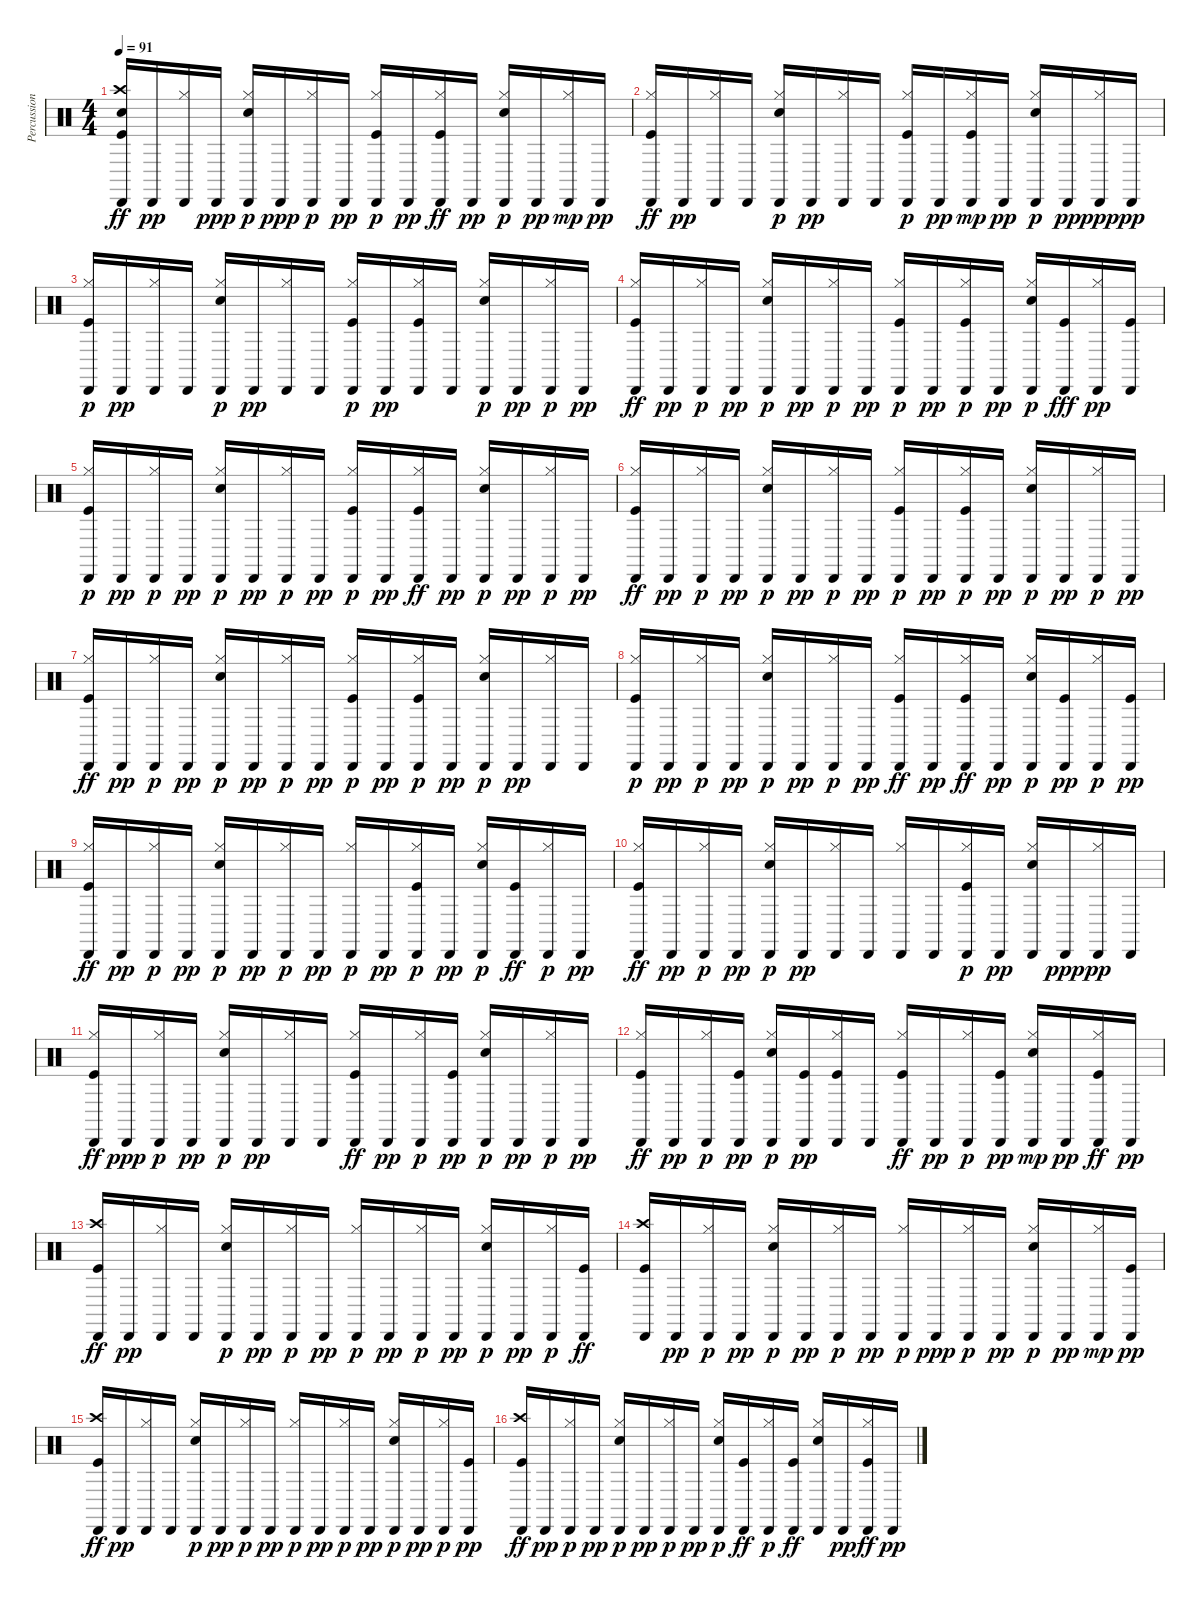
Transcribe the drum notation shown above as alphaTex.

\track ("Percussion" "Percussion") {instrument percussion}
\staff {score}
\articulation defaults
\ts (4 4)
\tempo 91
\clef neutral
\ks c
("Snare (hit) 2" "Cabasa (hit)" "Crash high (hit)" "Kick (hit)").16{dy ff} "Cabasa (hit)".16{dy pp} ("Hi-Hat (closed)" "Cabasa (hit)").16 "Cabasa (hit)".16{dy ppp} ("Hi-Hat (closed)" "Cabasa (hit)" "Snare (hit) 2").16{dy p} "Cabasa (hit)".16{dy ppp} ("Cabasa (hit)" "Hi-Hat (closed)").16{dy p} "Cabasa (hit)".16{dy pp} ("Cabasa (hit)" "Hi-Hat (closed)" "Kick (hit)").16{dy p} "Cabasa (hit)".16{dy pp} ("Cabasa (hit)" "Hi-Hat (closed)" "Kick (hit)").16{dy ff} "Cabasa (hit)".16{dy pp} ("Cabasa (hit)" "Hi-Hat (closed)" "Snare (hit) 2").16{dy p} "Cabasa (hit)".16{dy pp} ("Cabasa (hit)" "Hi-Hat (closed)").16{dy mp} "Cabasa (hit)".16{dy pp} |
("Cabasa (hit)" "Hi-Hat (closed)" "Kick (hit)").16{dy ff} "Cabasa (hit)".16{dy pp} ("Hi-Hat (closed)" "Cabasa (hit)").16 "Cabasa (hit)".16 ("Cabasa (hit)" "Hi-Hat (closed)" "Snare (hit) 2").16{dy p} "Cabasa (hit)".16{dy pp} ("Hi-Hat (closed)" "Cabasa (hit)").16 "Cabasa (hit)".16 ("Hi-Hat (closed)" "Kick (hit)" "Cabasa (hit)").16{dy p} "Cabasa (hit)".16{dy pp} ("Cabasa (hit)" "Kick (hit)" "Hi-Hat (closed)").16{dy mp} "Cabasa (hit)".16{dy pp} ("Cabasa (hit)" "Hi-Hat (closed)" "Snare (hit) 2").16{dy p} "Cabasa (hit)".16{dy pp} ("Hi-Hat (closed)" "Cabasa (hit)").16{dy ppp} "Cabasa (hit)".16{dy pp} |
("Cabasa (hit)" "Hi-Hat (closed)" "Kick (hit)").16{dy p} "Cabasa (hit)".16{dy pp} ("Hi-Hat (closed)" "Cabasa (hit)").16 "Cabasa (hit)".16 ("Hi-Hat (closed)" "Snare (hit) 2" "Cabasa (hit)").16{dy p} "Cabasa (hit)".16{dy pp} ("Hi-Hat (closed)" "Cabasa (hit)").16 "Cabasa (hit)".16 ("Hi-Hat (closed)" "Kick (hit)" "Cabasa (hit)").16{dy p} "Cabasa (hit)".16{dy pp} ("Hi-Hat (closed)" "Cabasa (hit)" "Kick (hit)").16 "Cabasa (hit)".16 ("Hi-Hat (closed)" "Cabasa (hit)" "Snare (hit) 2").16{dy p} "Cabasa (hit)".16{dy pp} ("Cabasa (hit)" "Hi-Hat (closed)").16{dy p} "Cabasa (hit)".16{dy pp} |
("Cabasa (hit)" "Hi-Hat (closed)" "Kick (hit)").16{dy ff} "Cabasa (hit)".16{dy pp} ("Cabasa (hit)" "Hi-Hat (closed)").16{dy p} "Cabasa (hit)".16{dy pp} ("Cabasa (hit)" "Hi-Hat (closed)" "Snare (hit) 2").16{dy p} "Cabasa (hit)".16{dy pp} ("Cabasa (hit)" "Hi-Hat (closed)").16{dy p} "Cabasa (hit)".16{dy pp} ("Kick (hit)" "Cabasa (hit)" "Hi-Hat (closed)").16{dy p} "Cabasa (hit)".16{dy pp} ("Cabasa (hit)" "Kick (hit)" "Hi-Hat (closed)").16{dy p} "Cabasa (hit)".16{dy pp} ("Cabasa (hit)" "Hi-Hat (closed)" "Snare (hit) 2").16{dy p} ("Cabasa (hit)" "Kick (hit)").16{dy fff} ("Hi-Hat (closed)" "Cabasa (hit)").16{dy pp} ("Cabasa (hit)" "Kick (hit)").16 |
("Hi-Hat (closed)" "Kick (hit)" "Cabasa (hit)").16{dy p} "Cabasa (hit)".16{dy pp} ("Cabasa (hit)" "Hi-Hat (closed)").16{dy p} "Cabasa (hit)".16{dy pp} ("Cabasa (hit)" "Hi-Hat (closed)" "Snare (hit) 2").16{dy p} "Cabasa (hit)".16{dy pp} ("Cabasa (hit)" "Hi-Hat (closed)").16{dy p} "Cabasa (hit)".16{dy pp} ("Cabasa (hit)" "Kick (hit)" "Hi-Hat (closed)").16{dy p} "Cabasa (hit)".16{dy pp} ("Cabasa (hit)" "Hi-Hat (closed)" "Kick (hit)").16{dy ff} "Cabasa (hit)".16{dy pp} ("Cabasa (hit)" "Hi-Hat (closed)" "Snare (hit) 2").16{dy p} "Cabasa (hit)".16{dy pp} ("Cabasa (hit)" "Hi-Hat (closed)").16{dy p} "Cabasa (hit)".16{dy pp} |
("Cabasa (hit)" "Hi-Hat (closed)" "Kick (hit)").16{dy ff} "Cabasa (hit)".16{dy pp} ("Cabasa (hit)" "Hi-Hat (closed)").16{dy p} "Cabasa (hit)".16{dy pp} ("Cabasa (hit)" "Hi-Hat (closed)" "Snare (hit) 2").16{dy p} "Cabasa (hit)".16{dy pp} ("Cabasa (hit)" "Hi-Hat (closed)").16{dy p} "Cabasa (hit)".16{dy pp} ("Cabasa (hit)" "Kick (hit)" "Hi-Hat (closed)").16{dy p} "Cabasa (hit)".16{dy pp} ("Cabasa (hit)" "Kick (hit)" "Hi-Hat (closed)").16{dy p} "Cabasa (hit)".16{dy pp} ("Cabasa (hit)" "Hi-Hat (closed)" "Snare (hit) 2").16{dy p} "Cabasa (hit)".16{dy pp} ("Cabasa (hit)" "Hi-Hat (closed)").16{dy p} "Cabasa (hit)".16{dy pp} |
("Cabasa (hit)" "Hi-Hat (closed)" "Kick (hit)").16{dy ff} "Cabasa (hit)".16{dy pp} ("Cabasa (hit)" "Hi-Hat (closed)").16{dy p} "Cabasa (hit)".16{dy pp} ("Cabasa (hit)" "Hi-Hat (closed)" "Snare (hit) 2").16{dy p} "Cabasa (hit)".16{dy pp} ("Cabasa (hit)" "Hi-Hat (closed)").16{dy p} "Cabasa (hit)".16{dy pp} ("Kick (hit)" "Cabasa (hit)" "Hi-Hat (closed)").16{dy p} "Cabasa (hit)".16{dy pp} ("Cabasa (hit)" "Hi-Hat (closed)" "Kick (hit)").16{dy p} "Cabasa (hit)".16{dy pp} ("Cabasa (hit)" "Hi-Hat (closed)" "Snare (hit) 2").16{dy p} "Cabasa (hit)".16{dy pp} ("Hi-Hat (closed)" "Cabasa (hit)").16 "Cabasa (hit)".16 |
("Hi-Hat (closed)" "Kick (hit)" "Cabasa (hit)").16{dy p} "Cabasa (hit)".16{dy pp} ("Cabasa (hit)" "Hi-Hat (closed)").16{dy p} "Cabasa (hit)".16{dy pp} ("Cabasa (hit)" "Hi-Hat (closed)" "Snare (hit) 2").16{dy p} "Cabasa (hit)".16{dy pp} ("Cabasa (hit)" "Hi-Hat (closed)").16{dy p} "Cabasa (hit)".16{dy pp} ("Cabasa (hit)" "Hi-Hat (closed)" "Kick (hit)").16{dy ff} "Cabasa (hit)".16{dy pp} ("Cabasa (hit)" "Hi-Hat (closed)" "Kick (hit)").16{dy ff} "Cabasa (hit)".16{dy pp} ("Cabasa (hit)" "Hi-Hat (closed)" "Snare (hit) 2").16{dy p} ("Kick (hit)" "Cabasa (hit)").16{dy pp} ("Cabasa (hit)" "Hi-Hat (closed)").16{dy p} ("Cabasa (hit)" "Kick (hit)").16{dy pp} |
("Cabasa (hit)" "Hi-Hat (closed)" "Kick (hit)").16{dy ff} "Cabasa (hit)".16{dy pp} ("Cabasa (hit)" "Hi-Hat (closed)").16{dy p} "Cabasa (hit)".16{dy pp} ("Cabasa (hit)" "Hi-Hat (closed)" "Snare (hit) 2").16{dy p} "Cabasa (hit)".16{dy pp} ("Cabasa (hit)" "Hi-Hat (closed)").16{dy p} "Cabasa (hit)".16{dy pp} ("Cabasa (hit)" "Hi-Hat (closed)").16{dy p} "Cabasa (hit)".16{dy pp} ("Cabasa (hit)" "Hi-Hat (closed)" "Kick (hit)").16{dy p} "Cabasa (hit)".16{dy pp} ("Cabasa (hit)" "Snare (hit) 2" "Hi-Hat (closed)").16{dy p} ("Cabasa (hit)" "Kick (hit)").16{dy ff} ("Cabasa (hit)" "Hi-Hat (closed)").16{dy p} "Cabasa (hit)".16{dy pp} |
("Cabasa (hit)" "Hi-Hat (closed)" "Kick (hit)").16{dy ff} "Cabasa (hit)".16{dy pp} ("Cabasa (hit)" "Hi-Hat (closed)").16{dy p} "Cabasa (hit)".16{dy pp} ("Cabasa (hit)" "Hi-Hat (closed)" "Snare (hit) 2").16{dy p} "Cabasa (hit)".16{dy pp} ("Cabasa (hit)" "Hi-Hat (closed)").16 "Cabasa (hit)".16 ("Cabasa (hit)" "Hi-Hat (closed)").16 "Cabasa (hit)".16 ("Kick (hit)" "Cabasa (hit)" "Hi-Hat (closed)").16{dy p} "Cabasa (hit)".16{dy pp} ("Cabasa (hit)" "Hi-Hat (closed)" "Snare (hit) 2").16 "Cabasa (hit)".16{dy ppp} ("Hi-Hat (closed)" "Cabasa (hit)").16{dy pp} "Cabasa (hit)".16 |
("Hi-Hat (closed)" "Cabasa (hit)" "Kick (hit)").16{dy ff} "Cabasa (hit)".16{dy ppp} ("Cabasa (hit)" "Hi-Hat (closed)").16{dy p} "Cabasa (hit)".16{dy pp} ("Hi-Hat (closed)" "Snare (hit) 2" "Cabasa (hit)").16{dy p} "Cabasa (hit)".16{dy pp} ("Hi-Hat (closed)" "Cabasa (hit)").16 "Cabasa (hit)".16 ("Cabasa (hit)" "Hi-Hat (closed)" "Kick (hit)").16{dy ff} "Cabasa (hit)".16{dy pp} ("Cabasa (hit)" "Hi-Hat (closed)").16{dy p} ("Cabasa (hit)" "Kick (hit)").16{dy pp} ("Cabasa (hit)" "Hi-Hat (closed)" "Snare (hit) 2").16{dy p} "Cabasa (hit)".16{dy pp} ("Cabasa (hit)" "Hi-Hat (closed)").16{dy p} "Cabasa (hit)".16{dy pp} |
("Cabasa (hit)" "Hi-Hat (closed)" "Kick (hit)").16{dy ff} "Cabasa (hit)".16{dy pp} ("Cabasa (hit)" "Hi-Hat (closed)").16{dy p} ("Cabasa (hit)" "Kick (hit)").16{dy pp} ("Cabasa (hit)" "Hi-Hat (closed)" "Snare (hit) 2").16{dy p} ("Kick (hit)" "Cabasa (hit)").16{dy pp} ("Kick (hit)" "Hi-Hat (closed)" "Cabasa (hit)").16 "Cabasa (hit)".16 ("Cabasa (hit)" "Hi-Hat (closed)" "Kick (hit)").16{dy ff} "Cabasa (hit)".16{dy pp} ("Cabasa (hit)" "Hi-Hat (closed)").16{dy p} ("Kick (hit)" "Cabasa (hit)").16{dy pp} ("Cabasa (hit)" "Hi-Hat (closed)" "Snare (hit) 2").16{dy mp} "Cabasa (hit)".16{dy pp} ("Cabasa (hit)" "Hi-Hat (closed)" "Kick (hit)").16{dy ff} "Cabasa (hit)".16{dy pp} |
("Cabasa (hit)" "Crash high (hit)" "Kick (hit)").16{dy ff} "Cabasa (hit)".16{dy pp} ("Hi-Hat (closed)" "Cabasa (hit)").16 "Cabasa (hit)".16 ("Cabasa (hit)" "Hi-Hat (closed)" "Snare (hit) 2").16{dy p} "Cabasa (hit)".16{dy pp} ("Cabasa (hit)" "Hi-Hat (closed)").16{dy p} "Cabasa (hit)".16{dy pp} ("Cabasa (hit)" "Hi-Hat (closed)").16{dy p} "Cabasa (hit)".16{dy pp} ("Cabasa (hit)" "Hi-Hat (closed)").16{dy p} "Cabasa (hit)".16{dy pp} ("Cabasa (hit)" "Snare (hit) 2" "Hi-Hat (closed)").16{dy p} "Cabasa (hit)".16{dy pp} ("Cabasa (hit)" "Hi-Hat (closed)").16{dy p} ("Cabasa (hit)" "Kick (hit)").16{dy ff} |
("Cabasa (hit)" "Crash high (hit)" "Kick (hit)").16 "Cabasa (hit)".16{dy pp} ("Cabasa (hit)" "Hi-Hat (closed)").16{dy p} "Cabasa (hit)".16{dy pp} ("Cabasa (hit)" "Hi-Hat (closed)" "Snare (hit) 2").16{dy p} "Cabasa (hit)".16{dy pp} ("Cabasa (hit)" "Hi-Hat (closed)").16{dy p} "Cabasa (hit)".16{dy pp} ("Cabasa (hit)" "Hi-Hat (closed)").16{dy p} "Cabasa (hit)".16{dy ppp} ("Cabasa (hit)" "Hi-Hat (closed)").16{dy p} "Cabasa (hit)".16{dy pp} ("Cabasa (hit)" "Hi-Hat (closed)" "Snare (hit) 2").16{dy p} "Cabasa (hit)".16{dy pp} ("Cabasa (hit)" "Hi-Hat (closed)").16{dy mp} ("Kick (hit)" "Cabasa (hit)").16{dy pp} |
("Cabasa (hit)" "Crash high (hit)" "Kick (hit)").16{dy ff} "Cabasa (hit)".16{dy pp} ("Hi-Hat (closed)" "Cabasa (hit)").16 "Cabasa (hit)".16 ("Cabasa (hit)" "Hi-Hat (closed)" "Snare (hit) 2").16{dy p} "Cabasa (hit)".16{dy pp} ("Cabasa (hit)" "Hi-Hat (closed)").16{dy p} "Cabasa (hit)".16{dy pp} ("Hi-Hat (closed)" "Cabasa (hit)").16{dy p} "Cabasa (hit)".16{dy pp} ("Cabasa (hit)" "Hi-Hat (closed)").16{dy p} "Cabasa (hit)".16{dy pp} ("Hi-Hat (closed)" "Cabasa (hit)" "Snare (hit) 2").16{dy p} "Cabasa (hit)".16{dy pp} ("Cabasa (hit)" "Hi-Hat (closed)").16{dy p} ("Kick (hit)" "Cabasa (hit)").16{dy pp} |
("Cabasa (hit)" "Crash high (hit)" "Kick (hit)").16{dy ff} "Cabasa (hit)".16{dy pp} ("Cabasa (hit)" "Hi-Hat (closed)").16{dy p} "Cabasa (hit)".16{dy pp} ("Cabasa (hit)" "Hi-Hat (closed)" "Snare (hit) 2").16{dy p} "Cabasa (hit)".16{dy pp} ("Cabasa (hit)" "Hi-Hat (closed)").16{dy p} "Cabasa (hit)".16{dy pp} ("Cabasa (hit)" "Hi-Hat (closed)" "Snare (hit) 2").16{dy p} ("Cabasa (hit)" "Kick (hit)").16{dy ff} ("Cabasa (hit)" "Hi-Hat (closed)").16{dy p} ("Cabasa (hit)" "Kick (hit)").16{dy ff} ("Cabasa (hit)" "Hi-Hat (closed)" "Snare (hit) 2").16 "Cabasa (hit)".16{dy pp} ("Hi-Hat (closed)" "Cabasa (hit)" "Kick (hit)").16{dy ff} "Cabasa (hit)".16{dy pp}
